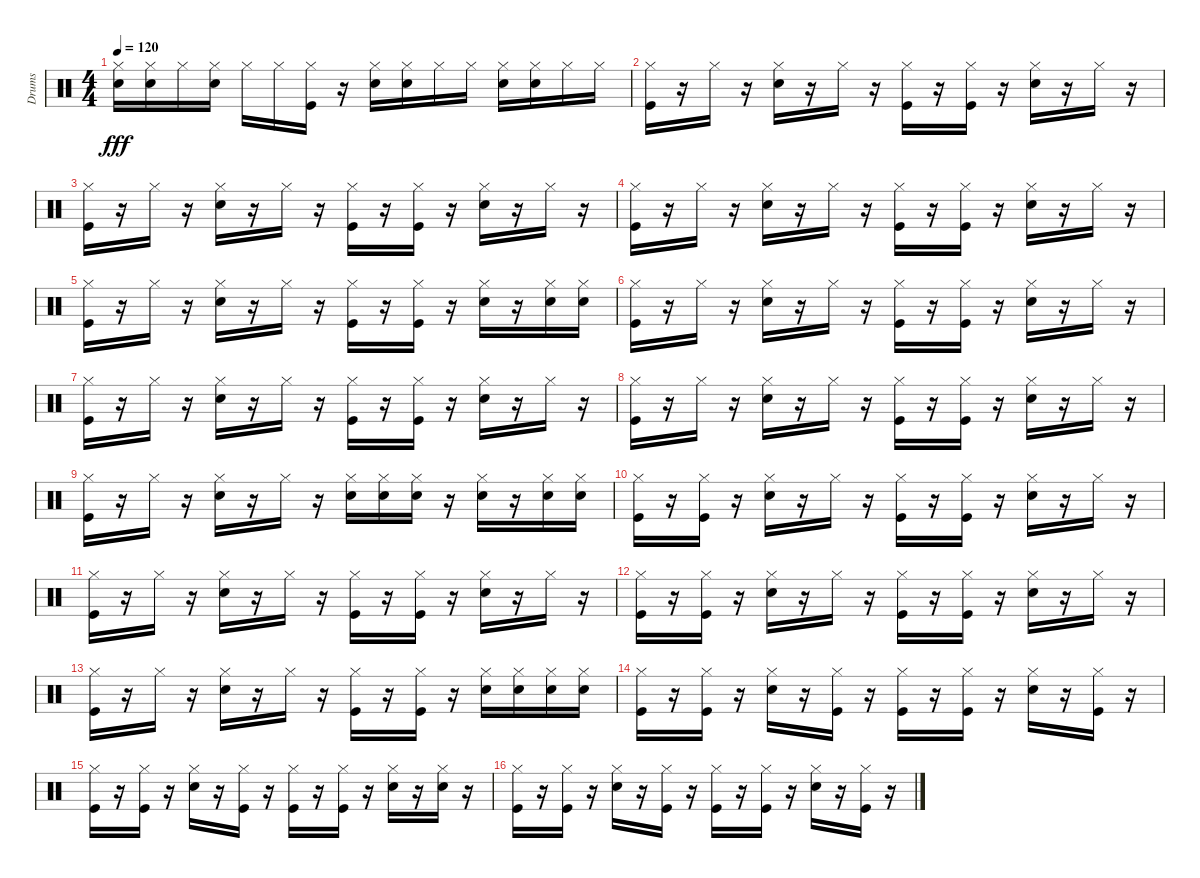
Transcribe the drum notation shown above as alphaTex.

\track ("Drums" "Drums") {instrument percussion}
\staff {score}
\articulation defaults
\ts (4 4)
\tempo 120
\clef neutral
\ks c
("Snare (hit) 2" "Hi-Hat (closed)").16{dy fff} ("Snare (hit) 2" "Hi-Hat (closed)").16 "Hi-Hat (closed)".16 ("Snare (hit) 2" "Hi-Hat (closed)").16 "Hi-Hat (closed)".16 "Hi-Hat (closed)".16 ("Kick (hit)" "Hi-Hat (closed)").16 r.16 ("Snare (hit) 2" "Hi-Hat (closed)").16 ("Snare (hit) 2" "Hi-Hat (closed)").16 "Hi-Hat (closed)".16 "Hi-Hat (closed)".16 ("Snare (hit) 2" "Hi-Hat (closed)").16 ("Snare (hit) 2" "Hi-Hat (closed)").16 "Hi-Hat (closed)".16 "Hi-Hat (closed)".16 |
("Kick (hit)" "Hi-Hat (closed)").16 r.16 "Hi-Hat (closed)".16 r.16 ("Snare (hit) 2" "Hi-Hat (closed)").16 r.16 "Hi-Hat (closed)".16 r.16 ("Kick (hit)" "Hi-Hat (closed)").16 r.16 ("Kick (hit)" "Hi-Hat (closed)").16 r.16 ("Snare (hit) 2" "Hi-Hat (closed)").16 r.16 "Hi-Hat (closed)".16 r.16 |
("Kick (hit)" "Hi-Hat (closed)").16 r.16 "Hi-Hat (closed)".16 r.16 ("Snare (hit) 2" "Hi-Hat (closed)").16 r.16 "Hi-Hat (closed)".16 r.16 ("Kick (hit)" "Hi-Hat (closed)").16 r.16 ("Kick (hit)" "Hi-Hat (closed)").16 r.16 ("Snare (hit) 2" "Hi-Hat (closed)").16 r.16 "Hi-Hat (closed)".16 r.16 |
("Kick (hit)" "Hi-Hat (closed)").16 r.16 "Hi-Hat (closed)".16 r.16 ("Snare (hit) 2" "Hi-Hat (closed)").16 r.16 "Hi-Hat (closed)".16 r.16 ("Kick (hit)" "Hi-Hat (closed)").16 r.16 ("Kick (hit)" "Hi-Hat (closed)").16 r.16 ("Snare (hit) 2" "Hi-Hat (closed)").16 r.16 "Hi-Hat (closed)".16 r.16 |
("Kick (hit)" "Hi-Hat (closed)").16 r.16 "Hi-Hat (closed)".16 r.16 ("Snare (hit) 2" "Hi-Hat (closed)").16 r.16 "Hi-Hat (closed)".16 r.16 ("Kick (hit)" "Hi-Hat (closed)").16 r.16 ("Kick (hit)" "Hi-Hat (closed)").16 r.16 ("Snare (hit) 2" "Hi-Hat (closed)").16 r.16 ("Snare (hit) 2" "Hi-Hat (closed)").16 ("Snare (hit) 2" "Hi-Hat (closed)").16 |
("Kick (hit)" "Hi-Hat (closed)").16 r.16 "Hi-Hat (closed)".16 r.16 ("Snare (hit) 2" "Hi-Hat (closed)").16 r.16 "Hi-Hat (closed)".16 r.16 ("Kick (hit)" "Hi-Hat (closed)").16 r.16 ("Kick (hit)" "Hi-Hat (closed)").16 r.16 ("Snare (hit) 2" "Hi-Hat (closed)").16 r.16 "Hi-Hat (closed)".16 r.16 |
("Kick (hit)" "Hi-Hat (closed)").16 r.16 "Hi-Hat (closed)".16 r.16 ("Snare (hit) 2" "Hi-Hat (closed)").16 r.16 "Hi-Hat (closed)".16 r.16 ("Kick (hit)" "Hi-Hat (closed)").16 r.16 ("Kick (hit)" "Hi-Hat (closed)").16 r.16 ("Snare (hit) 2" "Hi-Hat (closed)").16 r.16 "Hi-Hat (closed)".16 r.16 |
("Kick (hit)" "Hi-Hat (closed)").16 r.16 "Hi-Hat (closed)".16 r.16 ("Snare (hit) 2" "Hi-Hat (closed)").16 r.16 "Hi-Hat (closed)".16 r.16 ("Kick (hit)" "Hi-Hat (closed)").16 r.16 ("Kick (hit)" "Hi-Hat (closed)").16 r.16 ("Snare (hit) 2" "Hi-Hat (closed)").16 r.16 "Hi-Hat (closed)".16 r.16 |
("Kick (hit)" "Hi-Hat (closed)").16 r.16 "Hi-Hat (closed)".16 r.16 ("Snare (hit) 2" "Hi-Hat (closed)").16 r.16 "Hi-Hat (closed)".16 r.16 ("Snare (hit) 2" "Hi-Hat (closed)").16 ("Snare (hit) 2" "Hi-Hat (closed)").16 ("Snare (hit) 2" "Hi-Hat (closed)").16 r.16 ("Snare (hit) 2" "Hi-Hat (closed)").16 r.16 ("Snare (hit) 2" "Hi-Hat (closed)").16 ("Snare (hit) 2" "Hi-Hat (closed)").16 |
("Kick (hit)" "Hi-Hat (closed)").16 r.16 ("Kick (hit)" "Hi-Hat (closed)").16 r.16 ("Snare (hit) 2" "Hi-Hat (closed)").16 r.16 "Hi-Hat (closed)".16 r.16 ("Kick (hit)" "Hi-Hat (closed)").16 r.16 ("Kick (hit)" "Hi-Hat (closed)").16 r.16 ("Snare (hit) 2" "Hi-Hat (closed)").16 r.16 "Hi-Hat (closed)".16 r.16 |
("Kick (hit)" "Hi-Hat (closed)").16 r.16 "Hi-Hat (closed)".16 r.16 ("Snare (hit) 2" "Hi-Hat (closed)").16 r.16 "Hi-Hat (closed)".16 r.16 ("Kick (hit)" "Hi-Hat (closed)").16 r.16 ("Kick (hit)" "Hi-Hat (closed)").16 r.16 ("Snare (hit) 2" "Hi-Hat (closed)").16 r.16 "Hi-Hat (closed)".16 r.16 |
("Kick (hit)" "Hi-Hat (closed)").16 r.16 ("Kick (hit)" "Hi-Hat (closed)").16 r.16 ("Snare (hit) 2" "Hi-Hat (closed)").16 r.16 "Hi-Hat (closed)".16 r.16 ("Kick (hit)" "Hi-Hat (closed)").16 r.16 ("Kick (hit)" "Hi-Hat (closed)").16 r.16 ("Snare (hit) 2" "Hi-Hat (closed)").16 r.16 "Hi-Hat (closed)".16 r.16 |
("Kick (hit)" "Hi-Hat (closed)").16 r.16 "Hi-Hat (closed)".16 r.16 ("Snare (hit) 2" "Hi-Hat (closed)").16 r.16 "Hi-Hat (closed)".16 r.16 ("Kick (hit)" "Hi-Hat (closed)").16 r.16 ("Kick (hit)" "Hi-Hat (closed)").16 r.16 ("Snare (hit) 2" "Hi-Hat (closed)").16 ("Snare (hit) 2" "Hi-Hat (closed)").16 ("Snare (hit) 2" "Hi-Hat (closed)").16 ("Snare (hit) 2" "Hi-Hat (closed)").16 |
("Kick (hit)" "Hi-Hat (closed)").16 r.16 ("Kick (hit)" "Hi-Hat (closed)").16 r.16 ("Snare (hit) 2" "Hi-Hat (closed)").16 r.16 ("Kick (hit)" "Hi-Hat (closed)").16 r.16 ("Kick (hit)" "Hi-Hat (closed)").16 r.16 ("Kick (hit)" "Hi-Hat (closed)").16 r.16 ("Snare (hit) 2" "Hi-Hat (closed)").16 r.16 ("Kick (hit)" "Hi-Hat (closed)").16 r.16 |
("Kick (hit)" "Hi-Hat (closed)").16 r.16 ("Kick (hit)" "Hi-Hat (closed)").16 r.16 ("Snare (hit) 2" "Hi-Hat (closed)").16 r.16 ("Kick (hit)" "Hi-Hat (closed)").16 r.16 ("Kick (hit)" "Hi-Hat (closed)").16 r.16 ("Kick (hit)" "Hi-Hat (closed)").16 r.16 ("Snare (hit) 2" "Hi-Hat (closed)").16 r.16 ("Snare (hit) 2" "Hi-Hat (closed)").16 r.16 |
("Kick (hit)" "Hi-Hat (closed)").16 r.16 ("Kick (hit)" "Hi-Hat (closed)").16 r.16 ("Snare (hit) 2" "Hi-Hat (closed)").16 r.16 ("Kick (hit)" "Hi-Hat (closed)").16 r.16 ("Kick (hit)" "Hi-Hat (closed)").16 r.16 ("Kick (hit)" "Hi-Hat (closed)").16 r.16 ("Snare (hit) 2" "Hi-Hat (closed)").16 r.16 ("Kick (hit)" "Hi-Hat (closed)").16 r.16
